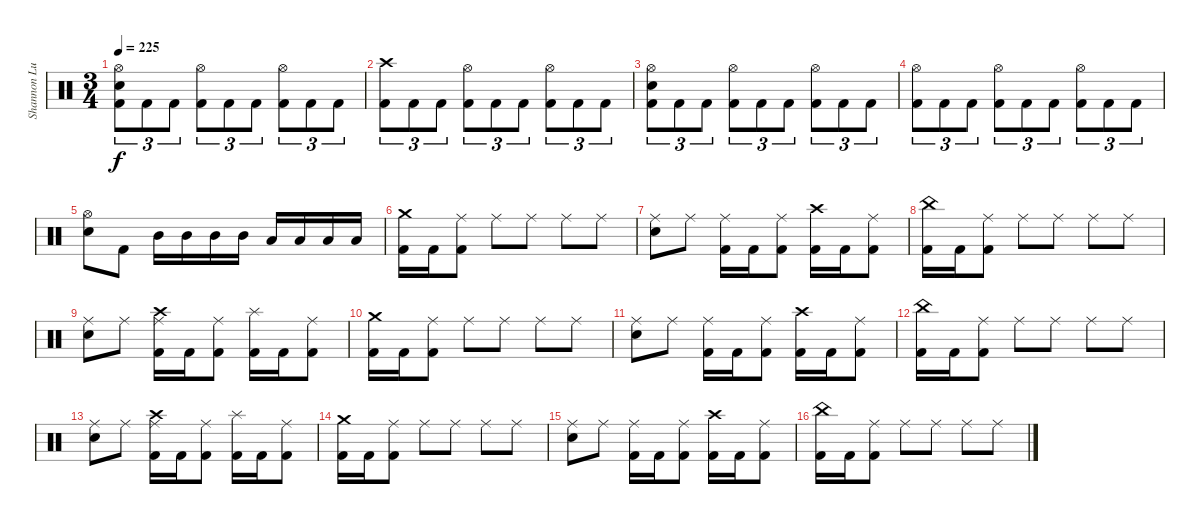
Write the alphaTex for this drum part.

\track ("Shannon Lucas" "Shannon Lu") {instrument percussion}
\staff {score}
\articulation defaults
\ts (3 4)
\tempo 225
\clef neutral
\ks c
("Hi-Hat (open)" "Electric Snare (hit)" "Kick (hit) 2").8{tu (3 2) dy f} "Kick (hit) 2".8{tu (3 2)} "Kick (hit) 2".8{tu (3 2)} ("Hi-Hat (open)" "Kick (hit) 2").8{tu (3 2)} "Kick (hit) 2".8{tu (3 2)} "Kick (hit) 2".8{tu (3 2)} ("Hi-Hat (open)" "Kick (hit) 2").8{tu (3 2)} "Kick (hit) 2".8{tu (3 2)} "Kick (hit) 2".8{tu (3 2)} |
("Crash high (hit)" "Kick (hit) 2").8{tu (3 2)} "Kick (hit) 2".8{tu (3 2)} "Kick (hit) 2".8{tu (3 2)} ("Hi-Hat (open)" "Kick (hit) 2").8{tu (3 2)} "Kick (hit) 2".8{tu (3 2)} "Kick (hit) 2".8{tu (3 2)} ("Hi-Hat (open)" "Kick (hit) 2").8{tu (3 2)} "Kick (hit) 2".8{tu (3 2)} "Kick (hit) 2".8{tu (3 2)} |
("Hi-Hat (open)" "Electric Snare (hit)" "Kick (hit) 2").8{tu (3 2)} "Kick (hit) 2".8{tu (3 2)} "Kick (hit) 2".8{tu (3 2)} ("Hi-Hat (open)" "Kick (hit) 2").8{tu (3 2)} "Kick (hit) 2".8{tu (3 2)} "Kick (hit) 2".8{tu (3 2)} ("Hi-Hat (open)" "Kick (hit) 2").8{tu (3 2)} "Kick (hit) 2".8{tu (3 2)} "Kick (hit) 2".8{tu (3 2)} |
("Hi-Hat (open)" "Kick (hit) 2").8{tu (3 2)} "Kick (hit) 2".8{tu (3 2)} "Kick (hit) 2".8{tu (3 2)} ("Hi-Hat (open)" "Kick (hit) 2").8{tu (3 2)} "Kick (hit) 2".8{tu (3 2)} "Kick (hit) 2".8{tu (3 2)} ("Hi-Hat (open)" "Kick (hit) 2").8{tu (3 2)} "Kick (hit) 2".8{tu (3 2)} "Kick (hit) 2".8{tu (3 2)} |
("Hi-Hat (open)" "Electric Snare (hit)").8 "Kick (hit) 2".8 "Mid Tom (hit)".16 "Mid Tom (hit)".16 "Mid Tom (hit)".16 "Mid Tom (hit)".16 "Low Tom (hit)".16 "Low Tom (hit)".16 "Low Tom (hit)".16 "Low Tom (hit)".16 |
("Crash medium (hit)" "Kick (hit) 2").16 "Kick (hit) 2".16 ("Ride (middle)" "Kick (hit) 2").8 "Ride (middle)".8 "Ride (middle)".8 "Ride (middle)".8 "Ride (middle)".8 |
("Ride (middle)" "Electric Snare (hit)").8 "Ride (middle)".8 ("Ride (middle)" "Kick (hit) 2").16 "Kick (hit) 2".16 ("Ride (middle)" "Kick (hit) 2").8 ("Crash high (hit)" "Kick (hit) 2").16 "Kick (hit) 2".16 ("Ride (middle)" "Kick (hit) 2").8 |
("China (hit)" "Kick (hit) 2").16 "Kick (hit) 2".16 ("Ride (middle)" "Kick (hit) 2").8 "Ride (middle)".8 "Ride (middle)".8 "Ride (middle)".8 "Ride (middle)".8 |
("Ride (middle)" "Electric Snare (hit)").8 "Ride (middle)".8 ("Crash high (hit)" "Ride (middle)" "Kick (hit) 2").16 "Kick (hit) 2".16 ("Ride (middle)" "Kick (hit) 2").8 ("Splash (hit)" "Kick (hit) 2").16 "Kick (hit) 2".16 ("Ride (middle)" "Kick (hit) 2").8 |
("Crash medium (hit)" "Kick (hit) 2").16 "Kick (hit) 2".16 ("Ride (middle)" "Kick (hit) 2").8 "Ride (middle)".8 "Ride (middle)".8 "Ride (middle)".8 "Ride (middle)".8 |
("Ride (middle)" "Electric Snare (hit)").8 "Ride (middle)".8 ("Ride (middle)" "Kick (hit) 2").16 "Kick (hit) 2".16 ("Ride (middle)" "Kick (hit) 2").8 ("Crash high (hit)" "Kick (hit) 2").16 "Kick (hit) 2".16 ("Ride (middle)" "Kick (hit) 2").8 |
("China (hit)" "Kick (hit) 2").16 "Kick (hit) 2".16 ("Ride (middle)" "Kick (hit) 2").8 "Ride (middle)".8 "Ride (middle)".8 "Ride (middle)".8 "Ride (middle)".8 |
("Ride (middle)" "Electric Snare (hit)").8 "Ride (middle)".8 ("Crash high (hit)" "Ride (middle)" "Kick (hit) 2").16 "Kick (hit) 2".16 ("Ride (middle)" "Kick (hit) 2").8 ("Splash (hit)" "Kick (hit) 2").16 "Kick (hit) 2".16 ("Ride (middle)" "Kick (hit) 2").8 |
("Crash medium (hit)" "Kick (hit) 2").16 "Kick (hit) 2".16 ("Ride (middle)" "Kick (hit) 2").8 "Ride (middle)".8 "Ride (middle)".8 "Ride (middle)".8 "Ride (middle)".8 |
("Ride (middle)" "Electric Snare (hit)").8 "Ride (middle)".8 ("Ride (middle)" "Kick (hit) 2").16 "Kick (hit) 2".16 ("Ride (middle)" "Kick (hit) 2").8 ("Crash high (hit)" "Kick (hit) 2").16 "Kick (hit) 2".16 ("Ride (middle)" "Kick (hit) 2").8 |
("China (hit)" "Kick (hit) 2").16 "Kick (hit) 2".16 ("Ride (middle)" "Kick (hit) 2").8 "Ride (middle)".8 "Ride (middle)".8 "Ride (middle)".8 "Ride (middle)".8
